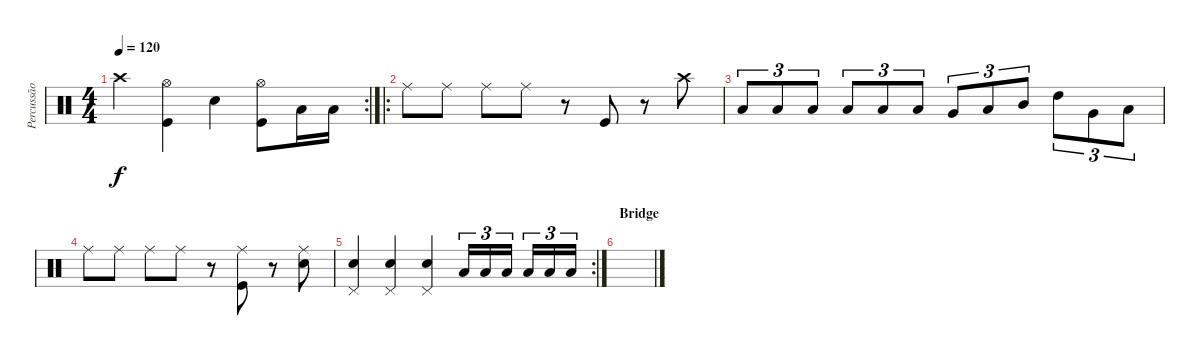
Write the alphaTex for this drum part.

\track ("Percussão" "Percussão") {instrument percussion}
\staff {score}
\articulation defaults
\rc 2
\ts (4 4)
\tempo 120
\clef neutral
\ks c "Crash high (hit)".4{dy f}
("Hi-Hat (open)" "Kick (hit)").4 "Snare (hit) 2".4 ("Hi-Hat (open)" "Kick (hit)").8 "Low Floor Tom (hit)".16 "Low Floor Tom (hit)".16 |
\ro "Ride (middle)".8 "Ride (middle)".8 "Ride (middle)".8 "Ride (middle)".8
r.8 "Kick (hit)".8 r.8 "Crash high (hit)".8 |
"Low Floor Tom (hit)".8{tu (3 2)} "Low Floor Tom (hit)".8{tu (3 2)} "Low Floor Tom (hit)".8{tu (3 2)} "Low Floor Tom (hit)".8{tu (3 2)} "Low Floor Tom (hit)".8{tu (3 2)} "Low Floor Tom (hit)".8{tu (3 2)} "Very Low Tom (hit)".8{tu (3 2)} "Low Tom (hit)".8{tu (3 2)} "Mid Tom (hit)".8{tu (3 2)} "High Tom (hit)".8{tu (3 2)} "Very Low Tom (hit)".8{tu (3 2)} "Low Floor Tom (hit)".8{tu (3 2)} |
"Ride (middle)".8 "Ride (middle)".8 "Ride (middle)".8 "Ride (middle)".8 r.8 ("Ride (middle)" "Kick (hit)").8 r.8 ("Ride (middle)" "Snare (hit) 2").8 |
\rc 2
("Pedal Hi-Hat (hit)" "Snare (hit) 2").4 ("Pedal Hi-Hat (hit)" "Snare (hit) 2").4 ("Pedal Hi-Hat (hit)" "Snare (hit) 2").4 "Low Floor Tom (hit)".16{tu (3 2)} "Low Floor Tom (hit)".16{tu (3 2)} "Low Floor Tom (hit)".16{tu (3 2)} "Low Floor Tom (hit)".16{tu (3 2)} "Low Floor Tom (hit)".16{tu (3 2)} "Low Floor Tom (hit)".16{tu (3 2)} |
\section ("" "Bridge")
